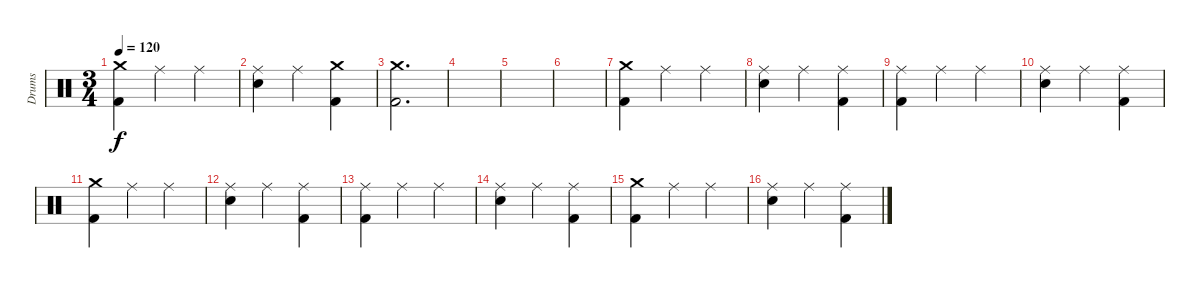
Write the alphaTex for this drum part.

\track ("Drums" "Drums") {instrument percussion}
\staff {score}
\articulation defaults
\ts (3 4)
\tempo 120
\clef neutral
\ks c
("Crash medium (hit)" "Kick (hit) 2").4{dy f} "Ride (middle)".4 "Ride (middle)".4 |
("Ride (middle)" "Electric Snare (hit)").4 "Ride (middle)".4 ("Crash medium (hit)" "Kick (hit) 2").4 |
("Crash medium (hit)" "Kick (hit) 2").2{d} |
|
|
|
("Crash medium (hit)" "Kick (hit) 2").4 "Ride (middle)".4 "Ride (middle)".4 |
("Ride (middle)" "Electric Snare (hit)").4 "Ride (middle)".4 ("Ride (middle)" "Kick (hit) 2").4 |
("Ride (middle)" "Kick (hit) 2").4 "Ride (middle)".4 "Ride (middle)".4 |
("Ride (middle)" "Electric Snare (hit)").4 "Ride (middle)".4 ("Ride (middle)" "Kick (hit) 2").4 |
("Crash medium (hit)" "Kick (hit) 2").4 "Ride (middle)".4 "Ride (middle)".4 |
("Ride (middle)" "Electric Snare (hit)").4 "Ride (middle)".4 ("Ride (middle)" "Kick (hit) 2").4 |
("Ride (middle)" "Kick (hit) 2").4 "Ride (middle)".4 "Ride (middle)".4 |
("Ride (middle)" "Electric Snare (hit)").4 "Ride (middle)".4 ("Ride (middle)" "Kick (hit) 2").4 |
("Crash medium (hit)" "Kick (hit) 2").4 "Ride (middle)".4 "Ride (middle)".4 |
("Ride (middle)" "Electric Snare (hit)").4 "Ride (middle)".4 ("Ride (middle)" "Kick (hit) 2").4
